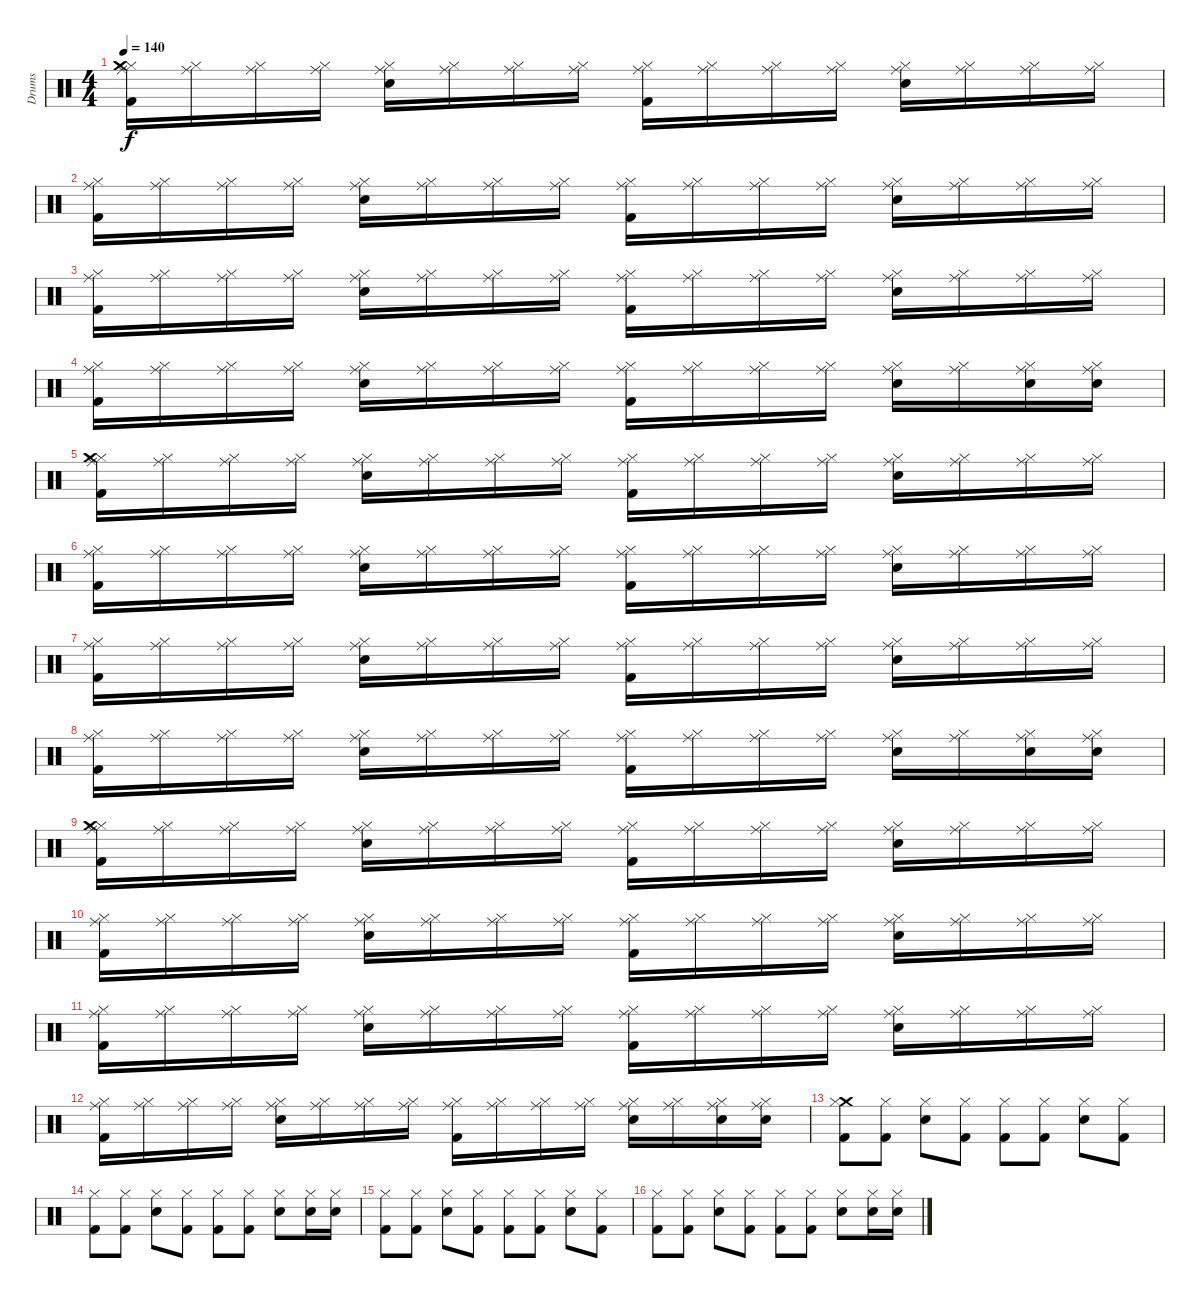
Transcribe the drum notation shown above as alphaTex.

\track ("Drums" "Drums") {instrument percussion}
\staff {score}
\articulation defaults
\ts (4 4)
\tempo 140
\clef neutral
\ks c
("Hi-Hat (closed)" "Crash medium (hit)" "Ride (middle)" "Kick (hit) 2").16{dy f} ("Hi-Hat (closed)" "Ride (middle)").16 ("Hi-Hat (closed)" "Ride (middle)").16 ("Hi-Hat (closed)" "Ride (middle)").16 ("Hi-Hat (closed)" "Ride (middle)" "Snare (hit) 2").16 ("Hi-Hat (closed)" "Ride (middle)").16 ("Hi-Hat (closed)" "Ride (middle)").16 ("Hi-Hat (closed)" "Ride (middle)").16 ("Hi-Hat (closed)" "Ride (middle)" "Kick (hit) 2").16 ("Hi-Hat (closed)" "Ride (middle)").16 ("Hi-Hat (closed)" "Ride (middle)").16 ("Hi-Hat (closed)" "Ride (middle)").16 ("Hi-Hat (closed)" "Ride (middle)" "Snare (hit) 2").16 ("Hi-Hat (closed)" "Ride (middle)").16 ("Hi-Hat (closed)" "Ride (middle)").16 ("Hi-Hat (closed)" "Ride (middle)").16 |
("Hi-Hat (closed)" "Ride (middle)" "Kick (hit) 2").16 ("Hi-Hat (closed)" "Ride (middle)").16 ("Hi-Hat (closed)" "Ride (middle)").16 ("Hi-Hat (closed)" "Ride (middle)").16 ("Hi-Hat (closed)" "Ride (middle)" "Snare (hit) 2").16 ("Hi-Hat (closed)" "Ride (middle)").16 ("Hi-Hat (closed)" "Ride (middle)").16 ("Hi-Hat (closed)" "Ride (middle)").16 ("Hi-Hat (closed)" "Ride (middle)" "Kick (hit) 2").16 ("Hi-Hat (closed)" "Ride (middle)").16 ("Hi-Hat (closed)" "Ride (middle)").16 ("Hi-Hat (closed)" "Ride (middle)").16 ("Hi-Hat (closed)" "Ride (middle)" "Snare (hit) 2").16 ("Hi-Hat (closed)" "Ride (middle)").16 ("Hi-Hat (closed)" "Ride (middle)").16 ("Hi-Hat (closed)" "Ride (middle)").16 |
("Hi-Hat (closed)" "Ride (middle)" "Kick (hit) 2").16 ("Hi-Hat (closed)" "Ride (middle)").16 ("Hi-Hat (closed)" "Ride (middle)").16 ("Hi-Hat (closed)" "Ride (middle)").16 ("Hi-Hat (closed)" "Ride (middle)" "Snare (hit) 2").16 ("Hi-Hat (closed)" "Ride (middle)").16 ("Hi-Hat (closed)" "Ride (middle)").16 ("Hi-Hat (closed)" "Ride (middle)").16 ("Hi-Hat (closed)" "Ride (middle)" "Kick (hit) 2").16 ("Hi-Hat (closed)" "Ride (middle)").16 ("Hi-Hat (closed)" "Ride (middle)").16 ("Hi-Hat (closed)" "Ride (middle)").16 ("Hi-Hat (closed)" "Ride (middle)" "Snare (hit) 2").16 ("Hi-Hat (closed)" "Ride (middle)").16 ("Hi-Hat (closed)" "Ride (middle)").16 ("Hi-Hat (closed)" "Ride (middle)").16 |
("Hi-Hat (closed)" "Ride (middle)" "Kick (hit) 2").16 ("Hi-Hat (closed)" "Ride (middle)").16 ("Hi-Hat (closed)" "Ride (middle)").16 ("Hi-Hat (closed)" "Ride (middle)").16 ("Hi-Hat (closed)" "Ride (middle)" "Snare (hit) 2").16 ("Hi-Hat (closed)" "Ride (middle)").16 ("Hi-Hat (closed)" "Ride (middle)").16 ("Hi-Hat (closed)" "Ride (middle)").16 ("Hi-Hat (closed)" "Ride (middle)" "Kick (hit) 2").16 ("Hi-Hat (closed)" "Ride (middle)").16 ("Hi-Hat (closed)" "Ride (middle)").16 ("Hi-Hat (closed)" "Ride (middle)").16 ("Hi-Hat (closed)" "Ride (middle)" "Snare (hit) 2").16 ("Hi-Hat (closed)" "Ride (middle)").16 ("Hi-Hat (closed)" "Ride (middle)" "Snare (hit) 2").16 ("Hi-Hat (closed)" "Ride (middle)" "Snare (hit) 2").16 |
("Hi-Hat (closed)" "Crash medium (hit)" "Ride (middle)" "Kick (hit) 2").16 ("Hi-Hat (closed)" "Ride (middle)").16 ("Hi-Hat (closed)" "Ride (middle)").16 ("Hi-Hat (closed)" "Ride (middle)").16 ("Hi-Hat (closed)" "Ride (middle)" "Snare (hit) 2").16 ("Hi-Hat (closed)" "Ride (middle)").16 ("Hi-Hat (closed)" "Ride (middle)").16 ("Hi-Hat (closed)" "Ride (middle)").16 ("Hi-Hat (closed)" "Ride (middle)" "Kick (hit) 2").16 ("Hi-Hat (closed)" "Ride (middle)").16 ("Hi-Hat (closed)" "Ride (middle)").16 ("Hi-Hat (closed)" "Ride (middle)").16 ("Hi-Hat (closed)" "Ride (middle)" "Snare (hit) 2").16 ("Hi-Hat (closed)" "Ride (middle)").16 ("Hi-Hat (closed)" "Ride (middle)").16 ("Hi-Hat (closed)" "Ride (middle)").16 |
("Hi-Hat (closed)" "Ride (middle)" "Kick (hit) 2").16 ("Hi-Hat (closed)" "Ride (middle)").16 ("Hi-Hat (closed)" "Ride (middle)").16 ("Hi-Hat (closed)" "Ride (middle)").16 ("Hi-Hat (closed)" "Ride (middle)" "Snare (hit) 2").16 ("Hi-Hat (closed)" "Ride (middle)").16 ("Hi-Hat (closed)" "Ride (middle)").16 ("Hi-Hat (closed)" "Ride (middle)").16 ("Hi-Hat (closed)" "Ride (middle)" "Kick (hit) 2").16 ("Hi-Hat (closed)" "Ride (middle)").16 ("Hi-Hat (closed)" "Ride (middle)").16 ("Hi-Hat (closed)" "Ride (middle)").16 ("Hi-Hat (closed)" "Ride (middle)" "Snare (hit) 2").16 ("Hi-Hat (closed)" "Ride (middle)").16 ("Hi-Hat (closed)" "Ride (middle)").16 ("Hi-Hat (closed)" "Ride (middle)").16 |
("Hi-Hat (closed)" "Ride (middle)" "Kick (hit) 2").16 ("Hi-Hat (closed)" "Ride (middle)").16 ("Hi-Hat (closed)" "Ride (middle)").16 ("Hi-Hat (closed)" "Ride (middle)").16 ("Hi-Hat (closed)" "Ride (middle)" "Snare (hit) 2").16 ("Hi-Hat (closed)" "Ride (middle)").16 ("Hi-Hat (closed)" "Ride (middle)").16 ("Hi-Hat (closed)" "Ride (middle)").16 ("Hi-Hat (closed)" "Ride (middle)" "Kick (hit) 2").16 ("Hi-Hat (closed)" "Ride (middle)").16 ("Hi-Hat (closed)" "Ride (middle)").16 ("Hi-Hat (closed)" "Ride (middle)").16 ("Hi-Hat (closed)" "Ride (middle)" "Snare (hit) 2").16 ("Hi-Hat (closed)" "Ride (middle)").16 ("Hi-Hat (closed)" "Ride (middle)").16 ("Hi-Hat (closed)" "Ride (middle)").16 |
("Hi-Hat (closed)" "Ride (middle)" "Kick (hit) 2").16 ("Hi-Hat (closed)" "Ride (middle)").16 ("Hi-Hat (closed)" "Ride (middle)").16 ("Hi-Hat (closed)" "Ride (middle)").16 ("Hi-Hat (closed)" "Ride (middle)" "Snare (hit) 2").16 ("Hi-Hat (closed)" "Ride (middle)").16 ("Hi-Hat (closed)" "Ride (middle)").16 ("Hi-Hat (closed)" "Ride (middle)").16 ("Hi-Hat (closed)" "Ride (middle)" "Kick (hit) 2").16 ("Hi-Hat (closed)" "Ride (middle)").16 ("Hi-Hat (closed)" "Ride (middle)").16 ("Hi-Hat (closed)" "Ride (middle)").16 ("Hi-Hat (closed)" "Ride (middle)" "Snare (hit) 2").16 ("Hi-Hat (closed)" "Ride (middle)").16 ("Hi-Hat (closed)" "Ride (middle)" "Snare (hit) 2").16 ("Hi-Hat (closed)" "Ride (middle)" "Snare (hit) 2").16 |
("Hi-Hat (closed)" "Crash medium (hit)" "Ride (middle)" "Kick (hit) 2").16 ("Hi-Hat (closed)" "Ride (middle)").16 ("Hi-Hat (closed)" "Ride (middle)").16 ("Hi-Hat (closed)" "Ride (middle)").16 ("Hi-Hat (closed)" "Ride (middle)" "Snare (hit) 2").16 ("Hi-Hat (closed)" "Ride (middle)").16 ("Hi-Hat (closed)" "Ride (middle)").16 ("Hi-Hat (closed)" "Ride (middle)").16 ("Hi-Hat (closed)" "Ride (middle)" "Kick (hit) 2").16 ("Hi-Hat (closed)" "Ride (middle)").16 ("Hi-Hat (closed)" "Ride (middle)").16 ("Hi-Hat (closed)" "Ride (middle)").16 ("Hi-Hat (closed)" "Ride (middle)" "Snare (hit) 2").16 ("Hi-Hat (closed)" "Ride (middle)").16 ("Hi-Hat (closed)" "Ride (middle)").16 ("Hi-Hat (closed)" "Ride (middle)").16 |
("Hi-Hat (closed)" "Ride (middle)" "Kick (hit) 2").16 ("Hi-Hat (closed)" "Ride (middle)").16 ("Hi-Hat (closed)" "Ride (middle)").16 ("Hi-Hat (closed)" "Ride (middle)").16 ("Hi-Hat (closed)" "Ride (middle)" "Snare (hit) 2").16 ("Hi-Hat (closed)" "Ride (middle)").16 ("Hi-Hat (closed)" "Ride (middle)").16 ("Hi-Hat (closed)" "Ride (middle)").16 ("Hi-Hat (closed)" "Ride (middle)" "Kick (hit) 2").16 ("Hi-Hat (closed)" "Ride (middle)").16 ("Hi-Hat (closed)" "Ride (middle)").16 ("Hi-Hat (closed)" "Ride (middle)").16 ("Hi-Hat (closed)" "Ride (middle)" "Snare (hit) 2").16 ("Hi-Hat (closed)" "Ride (middle)").16 ("Hi-Hat (closed)" "Ride (middle)").16 ("Hi-Hat (closed)" "Ride (middle)").16 |
("Hi-Hat (closed)" "Ride (middle)" "Kick (hit) 2").16 ("Hi-Hat (closed)" "Ride (middle)").16 ("Hi-Hat (closed)" "Ride (middle)").16 ("Hi-Hat (closed)" "Ride (middle)").16 ("Hi-Hat (closed)" "Ride (middle)" "Snare (hit) 2").16 ("Hi-Hat (closed)" "Ride (middle)").16 ("Hi-Hat (closed)" "Ride (middle)").16 ("Hi-Hat (closed)" "Ride (middle)").16 ("Hi-Hat (closed)" "Ride (middle)" "Kick (hit) 2").16 ("Hi-Hat (closed)" "Ride (middle)").16 ("Hi-Hat (closed)" "Ride (middle)").16 ("Hi-Hat (closed)" "Ride (middle)").16 ("Hi-Hat (closed)" "Ride (middle)" "Snare (hit) 2").16 ("Hi-Hat (closed)" "Ride (middle)").16 ("Hi-Hat (closed)" "Ride (middle)").16 ("Hi-Hat (closed)" "Ride (middle)").16 |
("Hi-Hat (closed)" "Ride (middle)" "Kick (hit) 2").16 ("Hi-Hat (closed)" "Ride (middle)").16 ("Hi-Hat (closed)" "Ride (middle)").16 ("Hi-Hat (closed)" "Ride (middle)").16 ("Hi-Hat (closed)" "Ride (middle)" "Snare (hit) 2").16 ("Hi-Hat (closed)" "Ride (middle)").16 ("Hi-Hat (closed)" "Ride (middle)").16 ("Hi-Hat (closed)" "Ride (middle)").16 ("Hi-Hat (closed)" "Ride (middle)" "Kick (hit) 2").16 ("Hi-Hat (closed)" "Ride (middle)").16 ("Hi-Hat (closed)" "Ride (middle)").16 ("Hi-Hat (closed)" "Ride (middle)").16 ("Hi-Hat (closed)" "Ride (middle)" "Snare (hit) 2").16 ("Hi-Hat (closed)" "Ride (middle)").16 ("Hi-Hat (closed)" "Ride (middle)" "Snare (hit) 2").16 ("Hi-Hat (closed)" "Ride (middle)" "Snare (hit) 2").16 |
("Crash medium (hit)" "Hi-Hat (closed)" "Kick (hit) 2").8 ("Hi-Hat (closed)" "Kick (hit) 2").8 ("Hi-Hat (closed)" "Snare (hit) 2").8 ("Hi-Hat (closed)" "Kick (hit) 2").8 ("Hi-Hat (closed)" "Kick (hit) 2").8 ("Hi-Hat (closed)" "Kick (hit) 2").8 ("Hi-Hat (closed)" "Snare (hit) 2").8 ("Hi-Hat (closed)" "Kick (hit) 2").8 |
("Hi-Hat (closed)" "Kick (hit) 2").8 ("Hi-Hat (closed)" "Kick (hit) 2").8 ("Hi-Hat (closed)" "Snare (hit) 2").8 ("Hi-Hat (closed)" "Kick (hit) 2").8 ("Hi-Hat (closed)" "Kick (hit) 2").8 ("Hi-Hat (closed)" "Kick (hit) 2").8 ("Hi-Hat (closed)" "Snare (hit) 2").8 ("Hi-Hat (closed)" "Snare (hit) 2").16 ("Hi-Hat (closed)" "Snare (hit) 2").16 |
("Hi-Hat (closed)" "Kick (hit) 2").8 ("Hi-Hat (closed)" "Kick (hit) 2").8 ("Hi-Hat (closed)" "Snare (hit) 2").8 ("Hi-Hat (closed)" "Kick (hit) 2").8 ("Hi-Hat (closed)" "Kick (hit) 2").8 ("Hi-Hat (closed)" "Kick (hit) 2").8 ("Hi-Hat (closed)" "Snare (hit) 2").8 ("Hi-Hat (closed)" "Kick (hit) 2").8 |
("Hi-Hat (closed)" "Kick (hit) 2").8 ("Hi-Hat (closed)" "Kick (hit) 2").8 ("Hi-Hat (closed)" "Snare (hit) 2").8 ("Hi-Hat (closed)" "Kick (hit) 2").8 ("Hi-Hat (closed)" "Kick (hit) 2").8 ("Hi-Hat (closed)" "Kick (hit) 2").8 ("Hi-Hat (closed)" "Snare (hit) 2").8 ("Hi-Hat (closed)" "Snare (hit) 2").16 ("Hi-Hat (closed)" "Snare (hit) 2").16
